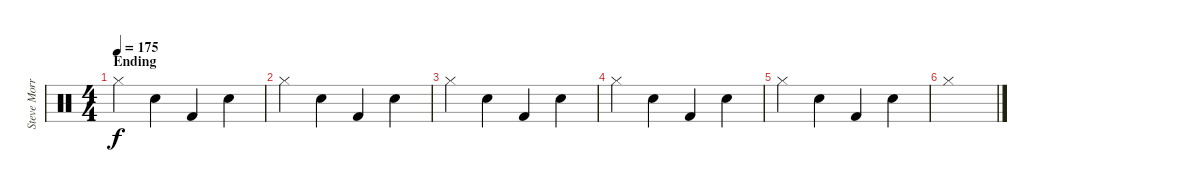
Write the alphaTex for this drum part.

\track ("Steve Morris" "Steve Morr") {instrument percussion}
\staff {score}
\articulation defaults
\ts (4 4)
\section ("" "Ending")
\tempo 175
\clef neutral
\ks c "Hi-Hat (closed)".4{dy f} "Snare (hit) 2".4 "Kick (hit) 2".4 "Snare (hit) 2".4
|
"Hi-Hat (closed)".4 "Snare (hit) 2".4 "Kick (hit) 2".4 "Snare (hit) 2".4 |
"Hi-Hat (closed)".4 "Snare (hit) 2".4 "Kick (hit) 2".4 "Snare (hit) 2".4 |
"Hi-Hat (closed)".4 "Snare (hit) 2".4 "Kick (hit) 2".4 "Snare (hit) 2".4 |
"Hi-Hat (closed)".4 "Snare (hit) 2".4 "Kick (hit) 2".4 "Snare (hit) 2".4 |
"Hi-Hat (closed)".1
